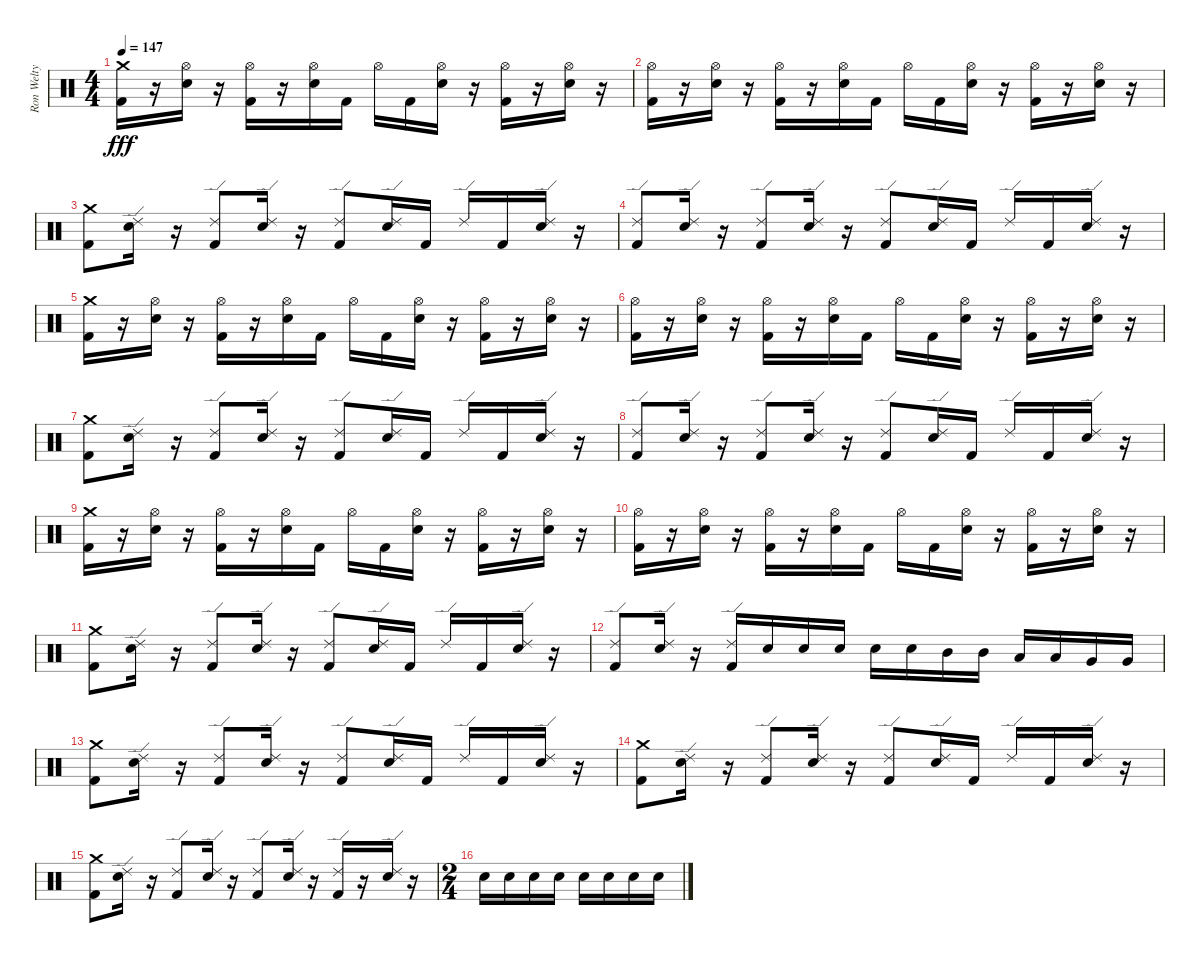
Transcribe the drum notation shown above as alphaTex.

\track ("Ron Welty" "Ron Welty") {instrument percussion}
\staff {score}
\articulation defaults
\ts (4 4)
\tempo 147
\clef neutral
\ks c
("Kick (hit) 2" "Crash medium (hit)").16{dy fff} r.16 ("Hi-Hat (open)" "Snare (hit) 2").16 r.16 ("Hi-Hat (open)" "Kick (hit) 2").16 r.16 ("Hi-Hat (open)" "Snare (hit) 2").16 "Kick (hit) 2".16 "Hi-Hat (open)".16 "Kick (hit) 2".16 ("Hi-Hat (open)" "Snare (hit) 2").16 r.16 ("Hi-Hat (open)" "Kick (hit) 2").16 r.16 ("Hi-Hat (open)" "Snare (hit) 2").16 r.16 |
("Hi-Hat (open)" "Kick (hit) 2").16 r.16 ("Hi-Hat (open)" "Snare (hit) 2").16 r.16 ("Hi-Hat (open)" "Kick (hit) 2").16 r.16 ("Hi-Hat (open)" "Snare (hit) 2").16 "Kick (hit) 2".16 "Hi-Hat (open)".16 "Kick (hit) 2".16 ("Hi-Hat (open)" "Snare (hit) 2").16 r.16 ("Hi-Hat (open)" "Kick (hit) 2").16 r.16 ("Hi-Hat (open)" "Snare (hit) 2").16 r.16 |
("Kick (hit) 2" "Crash medium (hit)").8 ("Snare (hit) 2" "Ride (edge) 2").16 r.16 ("Kick (hit) 2" "Ride (edge) 2").8 ("Snare (hit) 2" "Ride (edge) 2").16 r.16 ("Kick (hit) 2" "Ride (edge) 2").8 ("Snare (hit) 2" "Ride (edge) 2").16 "Kick (hit) 2".16 "Ride (edge) 2".16 "Kick (hit) 2".16 ("Snare (hit) 2" "Ride (edge) 2").16 r.16 |
("Kick (hit) 2" "Ride (edge) 2").8 ("Snare (hit) 2" "Ride (edge) 2").16 r.16 ("Kick (hit) 2" "Ride (edge) 2").8 ("Snare (hit) 2" "Ride (edge) 2").16 r.16 ("Kick (hit) 2" "Ride (edge) 2").8 ("Snare (hit) 2" "Ride (edge) 2").16 "Kick (hit) 2".16 "Ride (edge) 2".16 "Kick (hit) 2".16 ("Snare (hit) 2" "Ride (edge) 2").16 r.16 |
("Kick (hit) 2" "Crash medium (hit)").16 r.16 ("Hi-Hat (open)" "Snare (hit) 2").16 r.16 ("Hi-Hat (open)" "Kick (hit) 2").16 r.16 ("Hi-Hat (open)" "Snare (hit) 2").16 "Kick (hit) 2".16 "Hi-Hat (open)".16 "Kick (hit) 2".16 ("Hi-Hat (open)" "Snare (hit) 2").16 r.16 ("Hi-Hat (open)" "Kick (hit) 2").16 r.16 ("Hi-Hat (open)" "Snare (hit) 2").16 r.16 |
("Hi-Hat (open)" "Kick (hit) 2").16 r.16 ("Hi-Hat (open)" "Snare (hit) 2").16 r.16 ("Hi-Hat (open)" "Kick (hit) 2").16 r.16 ("Hi-Hat (open)" "Snare (hit) 2").16 "Kick (hit) 2".16 "Hi-Hat (open)".16 "Kick (hit) 2".16 ("Hi-Hat (open)" "Snare (hit) 2").16 r.16 ("Hi-Hat (open)" "Kick (hit) 2").16 r.16 ("Hi-Hat (open)" "Snare (hit) 2").16 r.16 |
("Kick (hit) 2" "Crash medium (hit)").8 ("Snare (hit) 2" "Ride (edge) 2").16 r.16 ("Kick (hit) 2" "Ride (edge) 2").8 ("Snare (hit) 2" "Ride (edge) 2").16 r.16 ("Kick (hit) 2" "Ride (edge) 2").8 ("Snare (hit) 2" "Ride (edge) 2").16 "Kick (hit) 2".16 "Ride (edge) 2".16 "Kick (hit) 2".16 ("Snare (hit) 2" "Ride (edge) 2").16 r.16 |
("Kick (hit) 2" "Ride (edge) 2").8 ("Snare (hit) 2" "Ride (edge) 2").16 r.16 ("Kick (hit) 2" "Ride (edge) 2").8 ("Snare (hit) 2" "Ride (edge) 2").16 r.16 ("Kick (hit) 2" "Ride (edge) 2").8 ("Snare (hit) 2" "Ride (edge) 2").16 "Kick (hit) 2".16 "Ride (edge) 2".16 "Kick (hit) 2".16 ("Snare (hit) 2" "Ride (edge) 2").16 r.16 |
("Kick (hit) 2" "Crash medium (hit)").16 r.16 ("Hi-Hat (open)" "Snare (hit) 2").16 r.16 ("Hi-Hat (open)" "Kick (hit) 2").16 r.16 ("Hi-Hat (open)" "Snare (hit) 2").16 "Kick (hit) 2".16 "Hi-Hat (open)".16 "Kick (hit) 2".16 ("Hi-Hat (open)" "Snare (hit) 2").16 r.16 ("Hi-Hat (open)" "Kick (hit) 2").16 r.16 ("Hi-Hat (open)" "Snare (hit) 2").16 r.16 |
("Hi-Hat (open)" "Kick (hit) 2").16 r.16 ("Hi-Hat (open)" "Snare (hit) 2").16 r.16 ("Hi-Hat (open)" "Kick (hit) 2").16 r.16 ("Hi-Hat (open)" "Snare (hit) 2").16 "Kick (hit) 2".16 "Hi-Hat (open)".16 "Kick (hit) 2".16 ("Hi-Hat (open)" "Snare (hit) 2").16 r.16 ("Hi-Hat (open)" "Kick (hit) 2").16 r.16 ("Hi-Hat (open)" "Snare (hit) 2").16 r.16 |
("Kick (hit) 2" "Crash medium (hit)").8 ("Snare (hit) 2" "Ride (edge) 2").16 r.16 ("Kick (hit) 2" "Ride (edge) 2").8 ("Snare (hit) 2" "Ride (edge) 2").16 r.16 ("Kick (hit) 2" "Ride (edge) 2").8 ("Snare (hit) 2" "Ride (edge) 2").16 "Kick (hit) 2".16 "Ride (edge) 2".16 "Kick (hit) 2".16 ("Snare (hit) 2" "Ride (edge) 2").16 r.16 |
("Kick (hit) 2" "Ride (edge) 2").8 ("Snare (hit) 2" "Ride (edge) 2").16 r.16 ("Kick (hit) 2" "Ride (edge) 2").16 "Snare (hit) 2".16 "Snare (hit) 2".16 "Snare (hit) 2".16 "Snare (hit) 2".16 "Snare (hit) 2".16 "Mid Tom (hit)".16 "Mid Tom (hit)".16 "Low Tom (hit)".16 "Low Tom (hit)".16 "Very Low Tom (hit)".16 "Very Low Tom (hit)".16 |
("Kick (hit) 2" "Crash medium (hit)").8 ("Snare (hit) 2" "Ride (edge) 2").16 r.16 ("Kick (hit) 2" "Ride (edge) 2").8 ("Snare (hit) 2" "Ride (edge) 2").16 r.16 ("Kick (hit) 2" "Ride (edge) 2").8 ("Snare (hit) 2" "Ride (edge) 2").16 "Kick (hit) 2".16 "Ride (edge) 2".16 "Kick (hit) 2".16 ("Snare (hit) 2" "Ride (edge) 2").16 r.16 |
("Kick (hit) 2" "Crash medium (hit)").8 ("Snare (hit) 2" "Ride (edge) 2").16 r.16 ("Kick (hit) 2" "Ride (edge) 2").8 ("Snare (hit) 2" "Ride (edge) 2").16 r.16 ("Kick (hit) 2" "Ride (edge) 2").8 ("Snare (hit) 2" "Ride (edge) 2").16 "Kick (hit) 2".16 "Ride (edge) 2".16 "Kick (hit) 2".16 ("Snare (hit) 2" "Ride (edge) 2").16 r.16 |
("Kick (hit) 2" "Crash medium (hit)").8 ("Snare (hit) 2" "Ride (edge) 2").16 r.16 ("Kick (hit) 2" "Ride (edge) 2").8 ("Snare (hit) 2" "Ride (edge) 2").16 r.16 ("Kick (hit) 2" "Ride (edge) 2").8 ("Snare (hit) 2" "Ride (edge) 2").16 r.16 ("Ride (edge) 2" "Kick (hit) 2").16 r.16 ("Snare (hit) 2" "Ride (edge) 2").16 r.16 |
\ts (2 4)
"Snare (hit) 2".16 "Snare (hit) 2".16 "Snare (hit) 2".16 "Snare (hit) 2".16 "Snare (hit) 2".16 "Snare (hit) 2".16 "Snare (hit) 2".16 "Snare (hit) 2".16
